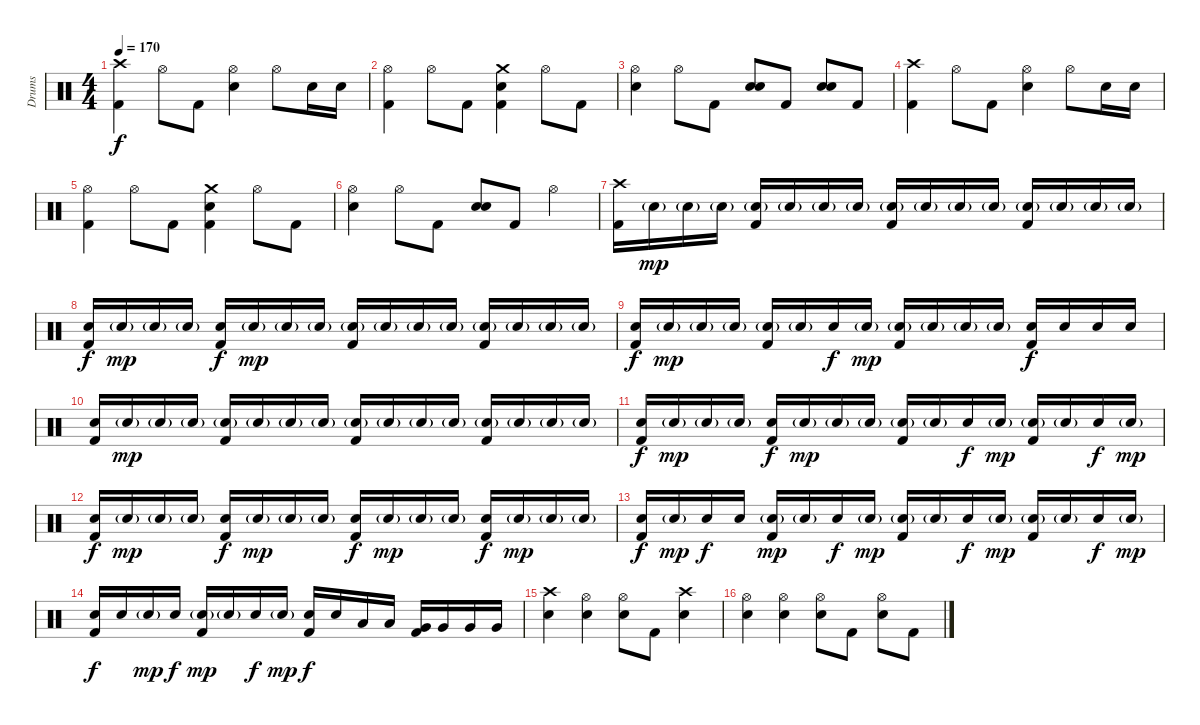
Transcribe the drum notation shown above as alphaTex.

\track ("Drums" "Drums") {instrument percussion}
\staff {score}
\articulation defaults
\ts (4 4)
\tempo 170
\clef neutral
\ks c
("Crash high (hit)" "Kick (hit) 2").4{dy f} "Hi-Hat (open)".8 "Kick (hit) 2".8 ("Hi-Hat (open)" "Snare (hit) 2").4 "Hi-Hat (open)".8 "Snare (hit) 2".16 "Snare (hit) 2".16 |
("Hi-Hat (open)" "Kick (hit) 2").4 "Hi-Hat (open)".8 "Kick (hit) 2".8 ("Crash medium (hit)" "Snare (hit) 2" "Kick (hit) 2").4 "Hi-Hat (open)".8 "Kick (hit) 2".8 |
("Hi-Hat (open)" "Snare (hit) 2").4 "Hi-Hat (open)".8 "Kick (hit) 2".8 ("Snare (hit) 2" "Snare (hit) 2").8 "Kick (hit) 2".8 ("Snare (hit) 2" "Snare (hit) 2").8 "Kick (hit) 2".8 |
("Crash high (hit)" "Kick (hit) 2").4 "Hi-Hat (open)".8 "Kick (hit) 2".8 ("Hi-Hat (open)" "Snare (hit) 2").4 "Hi-Hat (open)".8 "Snare (hit) 2".16 "Snare (hit) 2".16 |
("Hi-Hat (open)" "Kick (hit) 2").4 "Hi-Hat (open)".8 "Kick (hit) 2".8 ("Crash medium (hit)" "Snare (hit) 2" "Kick (hit) 2").4 "Hi-Hat (open)".8 "Kick (hit) 2".8 |
("Hi-Hat (open)" "Snare (hit) 2").4 "Hi-Hat (open)".8 "Kick (hit) 2".8 ("Snare (hit) 2" "Snare (hit) 2").8 "Kick (hit) 2".8 "Hi-Hat (open)".4 |
("Crash high (hit)" "Kick (hit) 2").16 "Snare (hit) 2"{g}.16{dy mp} "Snare (hit) 2"{g}.16 "Snare (hit) 2"{g}.16 ("Snare (hit) 2"{g} "Kick (hit) 2").16 "Snare (hit) 2"{g}.16 "Snare (hit) 2"{g}.16 "Snare (hit) 2"{g}.16 ("Snare (hit) 2"{g} "Kick (hit) 2").16 "Snare (hit) 2"{g}.16 "Snare (hit) 2"{g}.16 "Snare (hit) 2"{g}.16 ("Snare (hit) 2"{g} "Kick (hit) 2").16 "Snare (hit) 2"{g}.16 "Snare (hit) 2"{g}.16 "Snare (hit) 2"{g}.16 |
("Snare (hit) 2" "Kick (hit) 2").16{dy f} "Snare (hit) 2"{g}.16{dy mp} "Snare (hit) 2"{g}.16 "Snare (hit) 2"{g}.16 ("Snare (hit) 2" "Kick (hit) 2").16{dy f} "Snare (hit) 2"{g}.16{dy mp} "Snare (hit) 2"{g}.16 "Snare (hit) 2"{g}.16 ("Snare (hit) 2"{g} "Kick (hit) 2").16 "Snare (hit) 2"{g}.16 "Snare (hit) 2"{g}.16 "Snare (hit) 2"{g}.16 ("Snare (hit) 2"{g} "Kick (hit) 2").16 "Snare (hit) 2"{g}.16 "Snare (hit) 2"{g}.16 "Snare (hit) 2"{g}.16 |
("Snare (hit) 2" "Kick (hit) 2").16{dy f} "Snare (hit) 2"{g}.16{dy mp} "Snare (hit) 2"{g}.16 "Snare (hit) 2"{g}.16 ("Snare (hit) 2"{g} "Kick (hit) 2").16 "Snare (hit) 2"{g}.16 "Snare (hit) 2".16{dy f} "Snare (hit) 2"{g}.16{dy mp} ("Snare (hit) 2"{g} "Kick (hit) 2").16 "Snare (hit) 2"{g}.16 "Snare (hit) 2"{g}.16 "Snare (hit) 2"{g}.16 ("Snare (hit) 2" "Kick (hit) 2").16{dy f} "Snare (hit) 2".16 "Snare (hit) 2".16 "Snare (hit) 2".16 |
("Snare (hit) 2" "Kick (hit) 2").16 "Snare (hit) 2"{g}.16{dy mp} "Snare (hit) 2"{g}.16 "Snare (hit) 2"{g}.16 ("Snare (hit) 2"{g} "Kick (hit) 2").16 "Snare (hit) 2"{g}.16 "Snare (hit) 2"{g}.16 "Snare (hit) 2"{g}.16 ("Snare (hit) 2"{g} "Kick (hit) 2").16 "Snare (hit) 2"{g}.16 "Snare (hit) 2"{g}.16 "Snare (hit) 2"{g}.16 ("Snare (hit) 2"{g} "Kick (hit) 2").16 "Snare (hit) 2"{g}.16 "Snare (hit) 2"{g}.16 "Snare (hit) 2"{g}.16 |
("Snare (hit) 2" "Kick (hit) 2").16{dy f} "Snare (hit) 2"{g}.16{dy mp} "Snare (hit) 2"{g}.16 "Snare (hit) 2"{g}.16 ("Snare (hit) 2" "Kick (hit) 2").16{dy f} "Snare (hit) 2"{g}.16{dy mp} "Snare (hit) 2"{g}.16 "Snare (hit) 2"{g}.16 ("Snare (hit) 2"{g} "Kick (hit) 2").16 "Snare (hit) 2"{g}.16 "Snare (hit) 2".16{dy f} "Snare (hit) 2"{g}.16{dy mp} ("Snare (hit) 2"{g} "Kick (hit) 2").16 "Snare (hit) 2"{g}.16 "Snare (hit) 2".16{dy f} "Snare (hit) 2"{g}.16{dy mp} |
("Snare (hit) 2" "Kick (hit) 2").16{dy f} "Snare (hit) 2"{g}.16{dy mp} "Snare (hit) 2"{g}.16 "Snare (hit) 2"{g}.16 ("Snare (hit) 2" "Kick (hit) 2").16{dy f} "Snare (hit) 2"{g}.16{dy mp} "Snare (hit) 2"{g}.16 "Snare (hit) 2"{g}.16 ("Snare (hit) 2" "Kick (hit) 2").16{dy f} "Snare (hit) 2"{g}.16{dy mp} "Snare (hit) 2"{g}.16 "Snare (hit) 2"{g}.16 ("Snare (hit) 2" "Kick (hit) 2").16{dy f} "Snare (hit) 2"{g}.16{dy mp} "Snare (hit) 2"{g}.16 "Snare (hit) 2"{g}.16 |
("Snare (hit) 2" "Kick (hit) 2").16{dy f} "Snare (hit) 2"{g}.16{dy mp} "Snare (hit) 2".16{dy f} "Snare (hit) 2".16 ("Snare (hit) 2"{g} "Kick (hit) 2").16{dy mp} "Snare (hit) 2"{g}.16 "Snare (hit) 2".16{dy f} "Snare (hit) 2"{g}.16{dy mp} ("Snare (hit) 2"{g} "Kick (hit) 2").16 "Snare (hit) 2"{g}.16 "Snare (hit) 2".16{dy f} "Snare (hit) 2"{g}.16{dy mp} ("Snare (hit) 2"{g} "Kick (hit) 2").16 "Snare (hit) 2"{g}.16 "Snare (hit) 2".16{dy f} "Snare (hit) 2"{g}.16{dy mp} |
("Snare (hit) 2" "Kick (hit) 2").16{dy f} "Snare (hit) 2".16 "Snare (hit) 2"{g}.16{dy mp} "Snare (hit) 2".16{dy f} ("Snare (hit) 2"{g} "Kick (hit) 2").16{dy mp} "Snare (hit) 2"{g}.16 "Snare (hit) 2".16{dy f} "Snare (hit) 2"{g}.16{dy mp} ("Snare (hit) 2" "Kick (hit) 2").16{dy f} "Snare (hit) 2".16 "Low Tom (hit)".16 "Low Tom (hit)".16 ("Very Low Tom (hit)" "Kick (hit) 2").16 "Very Low Tom (hit)".16 "Very Low Tom (hit)".16 "Very Low Tom (hit)".16 |
("Crash high (hit)" "Snare (hit) 2").4 ("Hi-Hat (open)" "Snare (hit) 2").4 ("Hi-Hat (open)" "Snare (hit) 2").8 "Kick (hit) 2".8 ("Crash high (hit)" "Snare (hit) 2").4 |
("Hi-Hat (open)" "Snare (hit) 2").4 ("Hi-Hat (open)" "Snare (hit) 2").4 ("Hi-Hat (open)" "Snare (hit) 2").8 "Kick (hit) 2".8 ("Hi-Hat (open)" "Snare (hit) 2").8 "Kick (hit) 2".8
